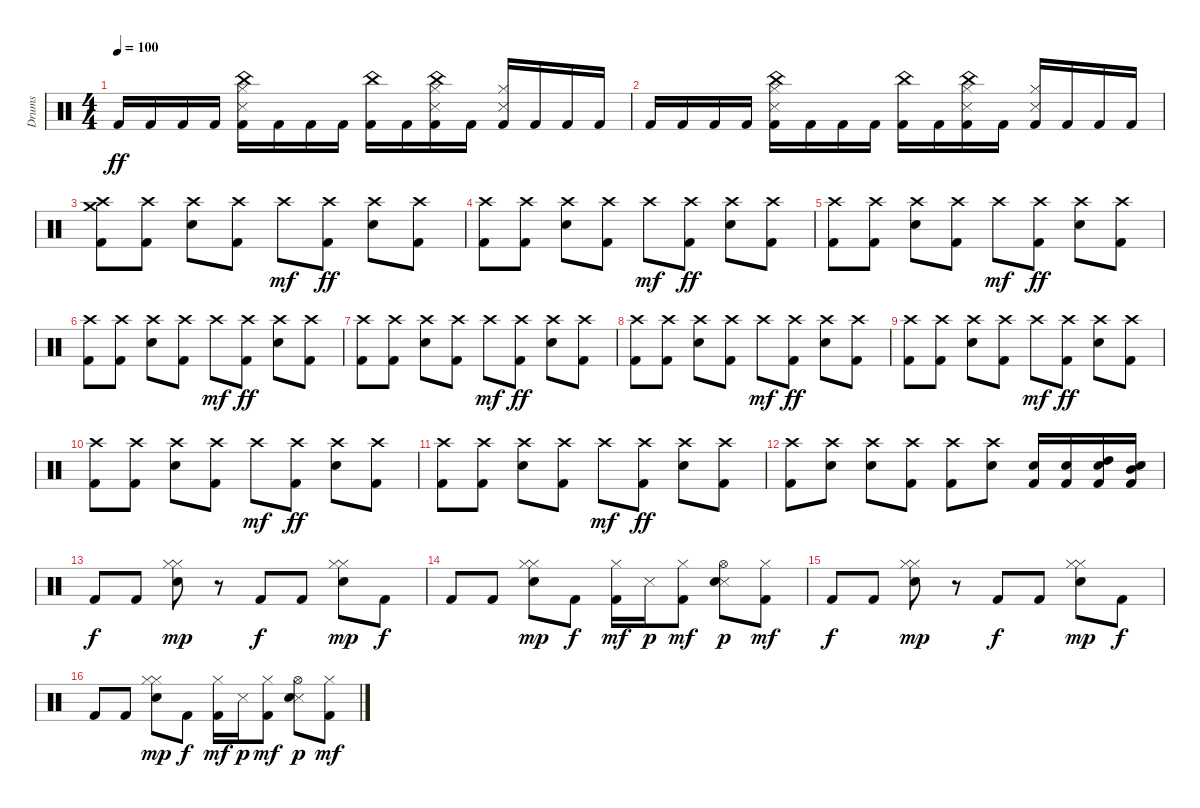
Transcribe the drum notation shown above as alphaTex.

\track ("Drums" "Drums") {instrument percussion}
\staff {score}
\articulation defaults
\ts (4 4)
\tempo 100
\clef neutral
\ks c "Kick (hit) 2".16{dy ff} "Kick (hit) 2".16 "Kick (hit) 2".16 "Kick (hit) 2".16
("Hi-Hat (closed)" "Snare (side stick) 3" "China (hit)" "Kick (hit) 2").16 "Kick (hit) 2".16 "Kick (hit) 2".16 "Kick (hit) 2".16 ("China (hit)" "Kick (hit) 2").16 "Kick (hit) 2".16 ("Hi-Hat (closed)" "Snare (side stick) 3" "China (hit)" "Kick (hit) 2").16 "Kick (hit) 2".16 ("Hi-Hat (closed)" "Snare (side stick) 3" "Kick (hit) 2").16 "Kick (hit) 2".16 "Kick (hit) 2".16 "Kick (hit) 2".16 |
"Kick (hit) 2".16 "Kick (hit) 2".16 "Kick (hit) 2".16 "Kick (hit) 2".16 ("Hi-Hat (closed)" "Snare (side stick) 3" "China (hit)" "Kick (hit) 2").16 "Kick (hit) 2".16 "Kick (hit) 2".16 "Kick (hit) 2".16 ("China (hit)" "Kick (hit) 2").16 "Kick (hit) 2".16 ("Hi-Hat (closed)" "Snare (side stick) 3" "China (hit)" "Kick (hit) 2").16 "Kick (hit) 2".16 ("Hi-Hat (closed)" "Snare (side stick) 3" "Kick (hit) 2").16 "Kick (hit) 2".16 "Kick (hit) 2".16 "Kick (hit) 2".16 |
("Crash high (hit)" "Crash medium (hit)" "Kick (hit) 2").8 ("Crash high (hit)" "Kick (hit) 2").8 ("Crash high (hit)" "Electric Snare (hit)").8 ("Crash high (hit)" "Kick (hit) 2").8 "Crash high (hit)".8{dy mf} ("Crash high (hit)" "Kick (hit) 2").8{dy ff} ("Crash high (hit)" "Electric Snare (hit)").8 ("Crash high (hit)" "Kick (hit) 2").8 |
("Crash high (hit)" "Kick (hit) 2").8 ("Crash high (hit)" "Kick (hit) 2").8 ("Crash high (hit)" "Electric Snare (hit)").8 ("Crash high (hit)" "Kick (hit) 2").8 "Crash high (hit)".8{dy mf} ("Crash high (hit)" "Kick (hit) 2").8{dy ff} ("Crash high (hit)" "Electric Snare (hit)").8 ("Crash high (hit)" "Kick (hit) 2").8 |
("Crash high (hit)" "Kick (hit) 2").8 ("Crash high (hit)" "Kick (hit) 2").8 ("Crash high (hit)" "Electric Snare (hit)").8 ("Crash high (hit)" "Kick (hit) 2").8 "Crash high (hit)".8{dy mf} ("Crash high (hit)" "Kick (hit) 2").8{dy ff} ("Crash high (hit)" "Electric Snare (hit)").8 ("Crash high (hit)" "Kick (hit) 2").8 |
("Crash high (hit)" "Kick (hit) 2").8 ("Crash high (hit)" "Kick (hit) 2").8 ("Crash high (hit)" "Electric Snare (hit)").8 ("Crash high (hit)" "Kick (hit) 2").8 "Crash high (hit)".8{dy mf} ("Crash high (hit)" "Kick (hit) 2").8{dy ff} ("Crash high (hit)" "Electric Snare (hit)").8 ("Crash high (hit)" "Kick (hit) 2").8 |
("Crash high (hit)" "Kick (hit) 2").8 ("Crash high (hit)" "Kick (hit) 2").8 ("Crash high (hit)" "Electric Snare (hit)").8 ("Crash high (hit)" "Kick (hit) 2").8 "Crash high (hit)".8{dy mf} ("Crash high (hit)" "Kick (hit) 2").8{dy ff} ("Crash high (hit)" "Electric Snare (hit)").8 ("Crash high (hit)" "Kick (hit) 2").8 |
("Crash high (hit)" "Kick (hit) 2").8 ("Crash high (hit)" "Kick (hit) 2").8 ("Crash high (hit)" "Electric Snare (hit)").8 ("Crash high (hit)" "Kick (hit) 2").8 "Crash high (hit)".8{dy mf} ("Crash high (hit)" "Kick (hit) 2").8{dy ff} ("Crash high (hit)" "Electric Snare (hit)").8 ("Crash high (hit)" "Kick (hit) 2").8 |
("Crash high (hit)" "Kick (hit) 2").8 ("Crash high (hit)" "Kick (hit) 2").8 ("Crash high (hit)" "Electric Snare (hit)").8 ("Crash high (hit)" "Kick (hit) 2").8 "Crash high (hit)".8{dy mf} ("Crash high (hit)" "Kick (hit) 2").8{dy ff} ("Crash high (hit)" "Electric Snare (hit)").8 ("Crash high (hit)" "Kick (hit) 2").8 |
("Crash high (hit)" "Kick (hit) 2").8 ("Crash high (hit)" "Kick (hit) 2").8 ("Crash high (hit)" "Electric Snare (hit)").8 ("Crash high (hit)" "Kick (hit) 2").8 "Crash high (hit)".8{dy mf} ("Crash high (hit)" "Kick (hit) 2").8{dy ff} ("Crash high (hit)" "Electric Snare (hit)").8 ("Crash high (hit)" "Kick (hit) 2").8 |
("Crash high (hit)" "Kick (hit) 2").8 ("Crash high (hit)" "Kick (hit) 2").8 ("Crash high (hit)" "Electric Snare (hit)").8 ("Crash high (hit)" "Kick (hit) 2").8 "Crash high (hit)".8{dy mf} ("Crash high (hit)" "Kick (hit) 2").8{dy ff} ("Crash high (hit)" "Electric Snare (hit)").8 ("Crash high (hit)" "Kick (hit) 2").8 |
("Crash high (hit)" "Kick (hit) 2").8 ("Crash high (hit)" "Electric Snare (hit)").8 ("Crash high (hit)" "Electric Snare (hit)").8 ("Crash high (hit)" "Kick (hit) 2").8 ("Crash high (hit)" "Kick (hit) 2").8 ("Crash high (hit)" "Electric Snare (hit)").8 ("Electric Snare (hit)" "Kick (hit) 2").16 ("Electric Snare (hit)" "Kick (hit) 2").16 ("High Tom (hit)" "Electric Snare (hit)" "Kick (hit) 2").16 ("Mid Tom (hit)" "Electric Snare (hit)" "Kick (hit) 2").16 |
"Kick (hit) 2".8{dy f} "Kick (hit) 2".8 ("Hi-Hat (closed)" "Hi-Hat (closed)" "Electric Snare (hit)").8{dy mp} r.8 "Kick (hit) 2".8{dy f} "Kick (hit) 2".8 ("Hi-Hat (closed)" "Hi-Hat (closed)" "Electric Snare (hit)").8{dy mp} "Kick (hit) 2".8{dy f} |
"Kick (hit) 2".8 "Kick (hit) 2".8 ("Hi-Hat (closed)" "Hi-Hat (closed)" "Electric Snare (hit)").8{dy mp} "Kick (hit) 2".8{dy f} ("Hi-Hat (closed)" "Kick (hit) 2").16{dy mf} "Snare (side stick) 3".16{dy p} ("Hi-Hat (closed)" "Kick (hit) 2").8{dy mf} ("Hi-Hat (open)" "Snare (side stick) 3" "Electric Snare (hit)").8{dy p} ("Hi-Hat (closed)" "Kick (hit) 2").8{dy mf} |
"Kick (hit) 2".8{dy f} "Kick (hit) 2".8 ("Hi-Hat (closed)" "Hi-Hat (closed)" "Electric Snare (hit)").8{dy mp} r.8 "Kick (hit) 2".8{dy f} "Kick (hit) 2".8 ("Hi-Hat (closed)" "Hi-Hat (closed)" "Electric Snare (hit)").8{dy mp} "Kick (hit) 2".8{dy f} |
"Kick (hit) 2".8 "Kick (hit) 2".8 ("Hi-Hat (closed)" "Hi-Hat (closed)" "Electric Snare (hit)").8{dy mp} "Kick (hit) 2".8{dy f} ("Hi-Hat (closed)" "Kick (hit) 2").16{dy mf} "Snare (side stick) 3".16{dy p} ("Hi-Hat (closed)" "Kick (hit) 2").8{dy mf} ("Hi-Hat (open)" "Snare (side stick) 3" "Electric Snare (hit)").8{dy p} ("Hi-Hat (closed)" "Kick (hit) 2").8{dy mf}
